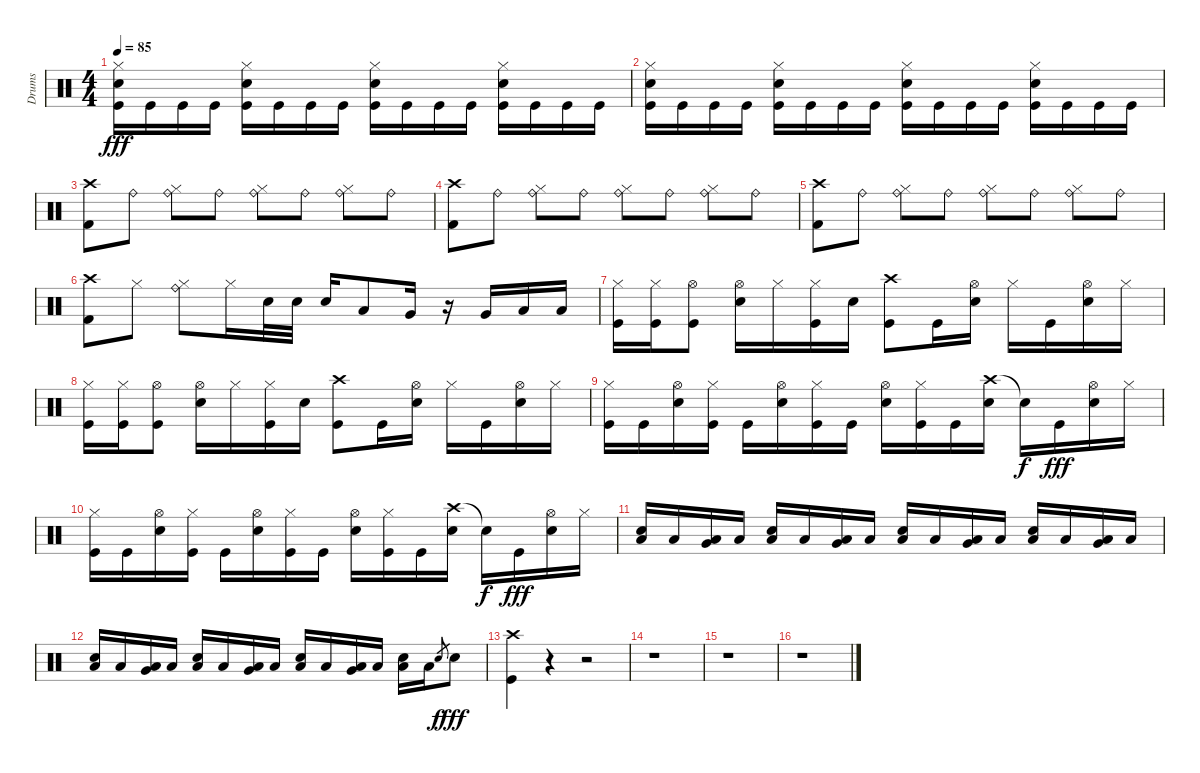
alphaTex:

\track ("Drums" "Drums") {instrument percussion}
\staff {score}
\articulation defaults
\ts (4 4)
\tempo 85
\clef neutral
\ks c
("Hi-Hat (closed)" "Snare (hit) 2" "Kick (hit)").16{dy fff} "Kick (hit)".16 "Kick (hit)".16 "Kick (hit)".16 ("Hi-Hat (closed)" "Snare (hit) 2" "Kick (hit)").16 "Kick (hit)".16 "Kick (hit)".16 "Kick (hit)".16 ("Hi-Hat (closed)" "Snare (hit) 2" "Kick (hit)").16 "Kick (hit)".16 "Kick (hit)".16 "Kick (hit)".16 ("Hi-Hat (closed)" "Snare (hit) 2" "Kick (hit)").16 "Kick (hit)".16 "Kick (hit)".16 "Kick (hit)".16 |
("Hi-Hat (closed)" "Snare (hit) 2" "Kick (hit)").16 "Kick (hit)".16 "Kick (hit)".16 "Kick (hit)".16 ("Hi-Hat (closed)" "Snare (hit) 2" "Kick (hit)").16 "Kick (hit)".16 "Kick (hit)".16 "Kick (hit)".16 ("Hi-Hat (closed)" "Snare (hit) 2" "Kick (hit)").16 "Kick (hit)".16 "Kick (hit)".16 "Kick (hit)".16 ("Hi-Hat (closed)" "Snare (hit) 2" "Kick (hit)").16 "Kick (hit)".16 "Kick (hit)".16 "Kick (hit)".16 |
("Crash high (hit)" "Kick (hit) 2").8 "Ride (bell)".8 ("Hi-Hat (closed)" "Ride (bell)").8 "Ride (bell)".8 ("Hi-Hat (closed)" "Ride (bell)").8 "Ride (bell)".8 ("Hi-Hat (closed)" "Ride (bell)").8 "Ride (bell)".8 |
("Crash high (hit)" "Kick (hit) 2").8 "Ride (bell)".8 ("Hi-Hat (closed)" "Ride (bell)").8 "Ride (bell)".8 ("Hi-Hat (closed)" "Ride (bell)").8 "Ride (bell)".8 ("Hi-Hat (closed)" "Ride (bell)").8 "Ride (bell)".8 |
("Crash high (hit)" "Kick (hit) 2").8 "Ride (bell)".8 ("Hi-Hat (closed)" "Ride (bell)").8 "Ride (bell)".8 ("Hi-Hat (closed)" "Ride (bell)").8 "Ride (bell)".8 ("Hi-Hat (closed)" "Ride (bell)").8 "Ride (bell)".8 |
("Crash high (hit)" "Kick (hit) 2").8 "Hi-Hat (closed)".8 ("Hi-Hat (closed)" "Ride (bell)").8 "Hi-Hat (closed)".16 "Snare (hit) 2".32 "Snare (hit) 2".32 "Snare (hit) 2".16 "Low Tom (hit)".8 "Very Low Tom (hit)".16 r.16 "Very Low Tom (hit)".16 "Low Tom (hit)".16 "Low Tom (hit)".16 |
("Hi-Hat (closed)" "Kick (hit)").16 ("Hi-Hat (closed)" "Kick (hit)").16 ("Hi-Hat (open)" "Kick (hit)").8 ("Hi-Hat (open)" "Snare (hit) 2").16 "Hi-Hat (closed)".16 ("Hi-Hat (closed)" "Kick (hit)").16 "Snare (hit) 2".16 ("Crash high (hit)" "Kick (hit)").8 "Kick (hit)".16 ("Hi-Hat (open)" "Snare (hit) 2").16 "Hi-Hat (closed)".16 "Kick (hit)".16 ("Hi-Hat (open)" "Snare (hit) 2").16 "Hi-Hat (closed)".16 |
("Hi-Hat (closed)" "Kick (hit)").16 ("Hi-Hat (closed)" "Kick (hit)").16 ("Hi-Hat (open)" "Kick (hit)").8 ("Hi-Hat (open)" "Snare (hit) 2").16 "Hi-Hat (closed)".16 ("Hi-Hat (closed)" "Kick (hit)").16 "Snare (hit) 2".16 ("Crash high (hit)" "Kick (hit)").8 "Kick (hit)".16 ("Hi-Hat (open)" "Snare (hit) 2").16 "Hi-Hat (closed)".16 "Kick (hit)".16 ("Hi-Hat (open)" "Snare (hit) 2").16 "Hi-Hat (closed)".16 |
("Hi-Hat (closed)" "Kick (hit)").16 "Kick (hit)".16 ("Hi-Hat (open)" "Snare (hit) 2").16 ("Hi-Hat (closed)" "Kick (hit)").16 "Kick (hit)".16 ("Hi-Hat (open)" "Snare (hit) 2").16 ("Hi-Hat (closed)" "Kick (hit)").16 "Kick (hit)".16 ("Hi-Hat (open)" "Snare (hit) 2").16 ("Hi-Hat (closed)" "Kick (hit)").16 "Kick (hit)".16 ("Crash high (hit)" "Snare (hit) 2").16 "Snare (hit)"{t}.16{dy f} "Kick (hit)".16{dy fff} ("Hi-Hat (open)" "Snare (hit) 2").16 "Hi-Hat (closed)".16 |
("Hi-Hat (closed)" "Kick (hit)").16 "Kick (hit)".16 ("Hi-Hat (open)" "Snare (hit) 2").16 ("Hi-Hat (closed)" "Kick (hit)").16 "Kick (hit)".16 ("Hi-Hat (open)" "Snare (hit) 2").16 ("Hi-Hat (closed)" "Kick (hit)").16 "Kick (hit)".16 ("Hi-Hat (open)" "Snare (hit) 2").16 ("Hi-Hat (closed)" "Kick (hit)").16 "Kick (hit)".16 ("Crash high (hit)" "Snare (hit) 2").16 "Snare (hit)"{t}.16{dy f} "Kick (hit)".16{dy fff} ("Hi-Hat (open)" "Snare (hit) 2").16 "Hi-Hat (closed)".16 |
("Low Floor Tom (hit)" "Snare (hit) 2").16 "Low Floor Tom (hit)".16 ("Very Low Tom (hit)" "Low Floor Tom (hit)").16 "Low Floor Tom (hit)".16 ("Low Floor Tom (hit)" "Snare (hit) 2").16 "Low Floor Tom (hit)".16 ("Very Low Tom (hit)" "Low Floor Tom (hit)").16 "Low Floor Tom (hit)".16 ("Low Floor Tom (hit)" "Snare (hit) 2").16 "Low Floor Tom (hit)".16 ("Very Low Tom (hit)" "Low Floor Tom (hit)").16 "Low Floor Tom (hit)".16 ("Low Floor Tom (hit)" "Snare (hit) 2").16 "Low Floor Tom (hit)".16 ("Very Low Tom (hit)" "Low Floor Tom (hit)").16 "Low Floor Tom (hit)".16 |
("Low Floor Tom (hit)" "Snare (hit) 2").16 "Low Floor Tom (hit)".16 ("Very Low Tom (hit)" "Low Floor Tom (hit)").16 "Low Floor Tom (hit)".16 ("Low Floor Tom (hit)" "Snare (hit) 2").16 "Low Floor Tom (hit)".16 ("Very Low Tom (hit)" "Low Floor Tom (hit)").16 "Low Floor Tom (hit)".16 ("Low Floor Tom (hit)" "Snare (hit) 2").16 "Low Floor Tom (hit)".16 ("Very Low Tom (hit)" "Low Floor Tom (hit)").16 "Low Floor Tom (hit)".16 ("Low Floor Tom (hit)" "Snare (hit) 2").16 "Low Floor Tom (hit)".16 "Snare (hit) 2".8{gr dy f} "Snare (hit) 2".8{dy fff} |
("Crash high (hit)" "Kick (hit)").4 r.4 r.2 |
r.1 |
r.1 |
r.1
